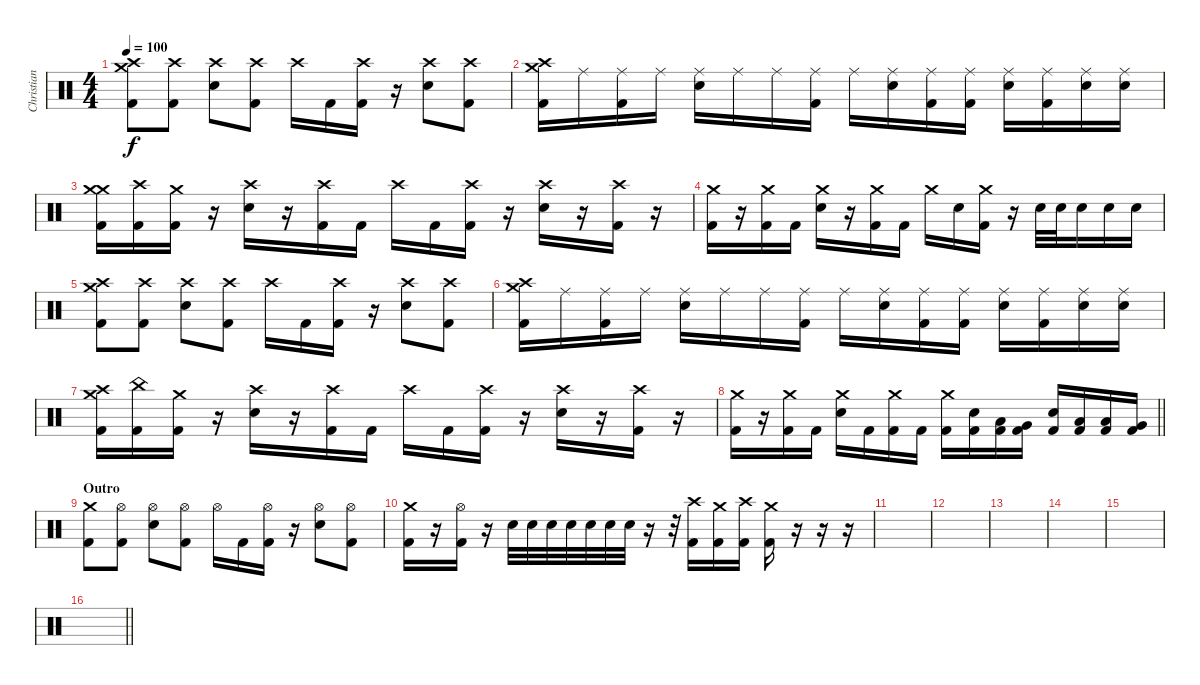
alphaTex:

\track ("Christian 'CC' Coma" "Christian ") {instrument percussion}
\staff {score}
\articulation defaults
\ts (4 4)
\tempo 100
\clef neutral
\ks c
("Crash high (hit)" "Crash medium (hit)" "Kick (hit) 2").8{dy f} ("Crash high (hit)" "Kick (hit) 2").8 ("Crash high (hit)" "Electric Snare (hit)").8 ("Crash high (hit)" "Kick (hit) 2").8 "Crash high (hit)".16 "Kick (hit) 2".16 ("Crash high (hit)" "Kick (hit) 2").16 r.16 ("Crash high (hit)" "Electric Snare (hit)").8 ("Crash high (hit)" "Kick (hit) 2").8 |
("Crash medium (hit)" "Crash high (hit)" "Kick (hit) 2").16 "Ride (middle)".16 ("Ride (middle)" "Kick (hit) 2").16 "Ride (middle)".16 ("Ride (middle)" "Electric Snare (hit)").16 "Ride (middle)".16 "Ride (middle)".16 ("Ride (middle)" "Kick (hit) 2").16 "Ride (middle)".16 ("Ride (middle)" "Electric Snare (hit)").16 ("Ride (middle)" "Kick (hit) 2").16 ("Ride (middle)" "Kick (hit) 2").16 ("Ride (middle)" "Electric Snare (hit)").16 ("Ride (middle)" "Kick (hit) 2").16 ("Ride (middle)" "Electric Snare (hit)").16 ("Ride (middle)" "Electric Snare (hit)").16 |
("Crash medium (hit)" "Crash medium (hit)" "Kick (hit) 2").16 ("Crash high (hit)" "Kick (hit) 2").16 ("Crash medium (hit)" "Kick (hit) 2").16 r.16 ("Crash high (hit)" "Electric Snare (hit)").16 r.16 ("Crash high (hit)" "Kick (hit) 2").16 "Kick (hit) 2".16 "Crash high (hit)".16 "Kick (hit) 2".16 ("Crash high (hit)" "Kick (hit) 2").16 r.16 ("Crash high (hit)" "Electric Snare (hit)").16 r.16 ("Crash high (hit)" "Kick (hit) 2").16 r.16 |
("Crash medium (hit)" "Kick (hit) 2").16 r.16 ("Crash medium (hit)" "Kick (hit) 2").16 "Kick (hit) 2".16 ("Crash medium (hit)" "Electric Snare (hit)").16 r.16 ("Crash medium (hit)" "Kick (hit) 2").16 "Kick (hit) 2".16 "Crash medium (hit)".16 "Electric Snare (hit)".16 ("Crash medium (hit)" "Kick (hit) 2").16 r.16 "Electric Snare (hit)".32 "Electric Snare (hit)".32 "Electric Snare (hit)".16 "Electric Snare (hit)".16 "Electric Snare (hit)".16 |
("Crash high (hit)" "Crash medium (hit)" "Kick (hit) 2").8 ("Crash high (hit)" "Kick (hit) 2").8 ("Crash high (hit)" "Electric Snare (hit)").8 ("Crash high (hit)" "Kick (hit) 2").8 "Crash high (hit)".16 "Kick (hit) 2".16 ("Crash high (hit)" "Kick (hit) 2").16 r.16 ("Crash high (hit)" "Electric Snare (hit)").8 ("Crash high (hit)" "Kick (hit) 2").8 |
("Crash medium (hit)" "Crash high (hit)" "Kick (hit) 2").16 "Ride (middle)".16 ("Ride (middle)" "Kick (hit) 2").16 "Ride (middle)".16 ("Ride (middle)" "Electric Snare (hit)").16 "Ride (middle)".16 "Ride (middle)".16 ("Ride (middle)" "Kick (hit) 2").16 "Ride (middle)".16 ("Ride (middle)" "Electric Snare (hit)").16 ("Ride (middle)" "Kick (hit) 2").16 ("Ride (middle)" "Kick (hit) 2").16 ("Ride (middle)" "Electric Snare (hit)").16 ("Ride (middle)" "Kick (hit) 2").16 ("Ride (middle)" "Electric Snare (hit)").16 ("Ride (middle)" "Electric Snare (hit)").16 |
("Crash high (hit)" "Crash medium (hit)" "Kick (hit) 2").16 ("China (hit)" "Kick (hit) 2").16 ("Crash medium (hit)" "Kick (hit) 2").16 r.16 ("Crash high (hit)" "Electric Snare (hit)").16 r.16 ("Crash high (hit)" "Kick (hit) 2").16 "Kick (hit) 2".16 "Crash high (hit)".16 "Kick (hit) 2".16 ("Crash high (hit)" "Kick (hit) 2").16 r.16 ("Crash high (hit)" "Electric Snare (hit)").16 r.16 ("Crash high (hit)" "Kick (hit) 2").16 r.16 |
\barLineRight lightlight
("Crash medium (hit)" "Kick (hit) 2").16 r.16 ("Crash medium (hit)" "Kick (hit) 2").16 "Kick (hit) 2".16 ("Crash medium (hit)" "Electric Snare (hit)").16 "Kick (hit) 2".16 ("Crash medium (hit)" "Kick (hit) 2").16 "Kick (hit) 2".16 ("Crash medium (hit)" "Kick (hit) 2").16 ("Electric Snare (hit)" "Kick (hit) 2").16 ("Low Tom (hit)" "Kick (hit) 2").16 ("Very Low Tom (hit)" "Kick (hit) 2").16 ("Electric Snare (hit)" "Kick (hit) 2").16 ("Low Floor Tom (hit)" "Kick (hit) 2").16 ("Low Tom (hit)" "Kick (hit) 2").16 ("Very Low Tom (hit)" "Kick (hit) 2").16 |
\section ("" "Outro")
("Crash medium (hit)" "Kick (hit) 2").8 ("Hi-Hat (open)" "Kick (hit) 2").8 ("Hi-Hat (open)" "Electric Snare (hit)").8 ("Hi-Hat (open)" "Kick (hit) 2").8 "Hi-Hat (open)".16 "Kick (hit) 2".16 ("Hi-Hat (open)" "Kick (hit) 2").16 r.16 ("Hi-Hat (open)" "Electric Snare (hit)").8 ("Hi-Hat (open)" "Kick (hit) 2").8 |
("Crash medium (hit)" "Kick (hit) 2").16 r.16 ("Hi-Hat (open)" "Kick (hit) 2").16 r.16 "Electric Snare (hit)".32 "Electric Snare (hit)".32 "Electric Snare (hit)".32 "Electric Snare (hit)".32 "Electric Snare (hit)".32 "Electric Snare (hit)".32 "Electric Snare (hit)".32 r.16 r.32 ("Crash high (hit)" "Kick (hit) 2").16 ("Crash medium (hit)" "Kick (hit) 2").16 ("Crash high (hit)" "Kick (hit) 2").16 ("Crash medium (hit)" "Kick (hit) 2").16 r.16 r.16 r.16 |
|
|
|
|
|
\barLineRight lightlight
